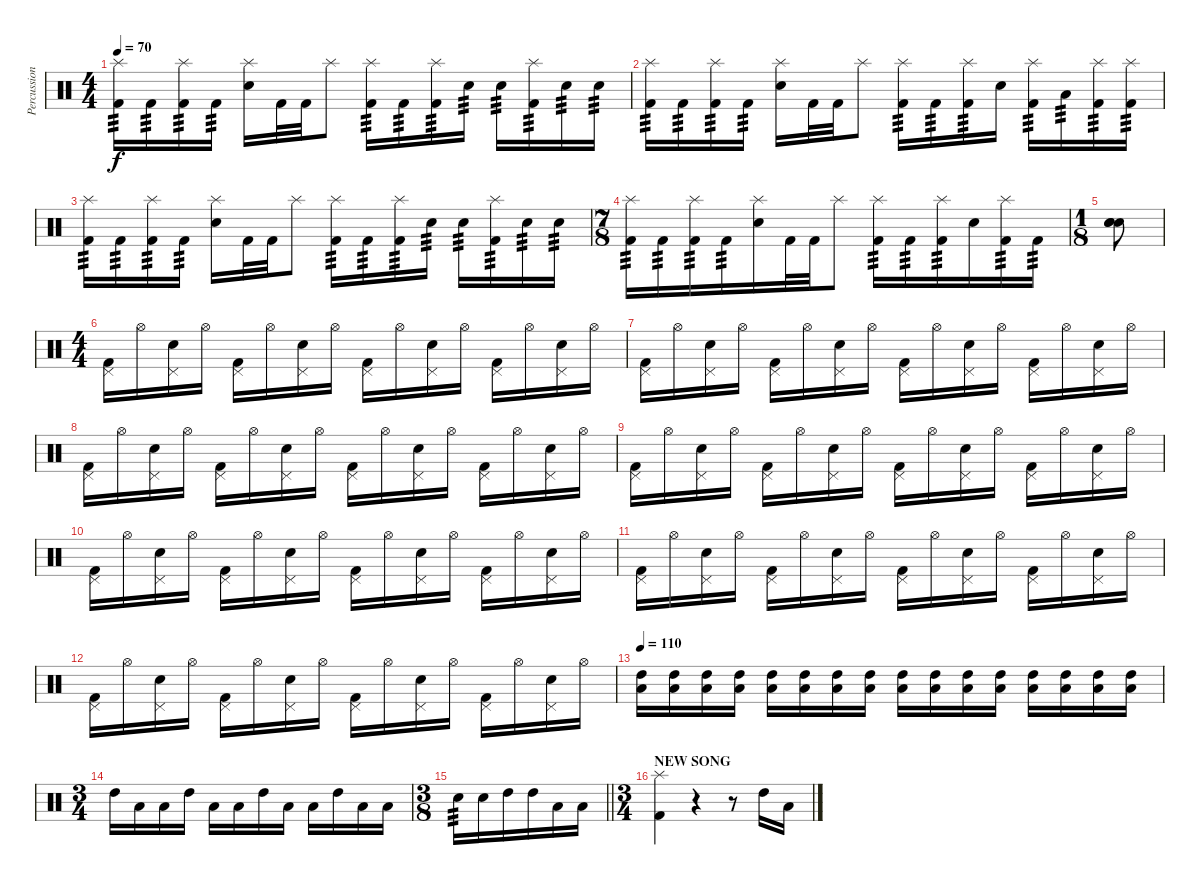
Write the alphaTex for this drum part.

\track ("Percussion" "Percussion") {instrument percussion}
\staff {score}
\articulation defaults
\ts (4 4)
\tempo 70
\clef neutral
\ks c
("Splash (hit)" "Kick (hit) 2").16{tp 3 dy f} "Kick (hit) 2".16{tp 3} ("Splash (hit)" "Kick (hit) 2").16{tp 3} "Kick (hit) 2".16{tp 3} ("Splash (hit)" "Electric Snare (hit)").16 "Kick (hit) 2".32 "Kick (hit) 2".32 "Splash (hit)".8 ("Splash (hit)" "Kick (hit) 2").16{tp 3} "Kick (hit) 2".16{tp 3} ("Splash (hit)" "Kick (hit) 2").16{tp 3} "Electric Snare (hit)".16{tp 3} "Electric Snare (hit)".16{tp 3} ("Splash (hit)" "Kick (hit) 2").16{tp 3} "Electric Snare (hit)".16{tp 3} "Electric Snare (hit)".16{tp 3} |
("Splash (hit)" "Kick (hit) 2").16{tp 3} "Kick (hit) 2".16{tp 3} ("Splash (hit)" "Kick (hit) 2").16{tp 3} "Kick (hit) 2".16{tp 3} ("Splash (hit)" "Electric Snare (hit)").16 "Kick (hit) 2".32 "Kick (hit) 2".32 "Splash (hit)".8 ("Splash (hit)" "Kick (hit) 2").16{tp 3} "Kick (hit) 2".16{tp 3} ("Splash (hit)" "Kick (hit) 2").16{tp 3} "Electric Snare (hit)".16 ("Splash (hit)" "Kick (hit) 2").16{tp 3} "Low Floor Tom (hit)".16{tp 3} ("Splash (hit)" "Kick (hit) 2").16{tp 3} ("Splash (hit)" "Kick (hit) 2").16{tp 3} |
("Splash (hit)" "Kick (hit) 2").16{tp 3} "Kick (hit) 2".16{tp 3} ("Splash (hit)" "Kick (hit) 2").16{tp 3} "Kick (hit) 2".16{tp 3} ("Splash (hit)" "Electric Snare (hit)").16 "Kick (hit) 2".32 "Kick (hit) 2".32 "Splash (hit)".8 ("Splash (hit)" "Kick (hit) 2").16{tp 3} "Kick (hit) 2".16{tp 3} ("Splash (hit)" "Kick (hit) 2").16{tp 3} "Electric Snare (hit)".16{tp 3} "Electric Snare (hit)".16{tp 3} ("Splash (hit)" "Kick (hit) 2").16{tp 3} "Electric Snare (hit)".16{tp 3} "Electric Snare (hit)".16{tp 3} |
\ts (7 8)
("Splash (hit)" "Kick (hit) 2").16{tp 3} "Kick (hit) 2".16{tp 3} ("Splash (hit)" "Kick (hit) 2").16{tp 3} "Kick (hit) 2".16{tp 3} ("Splash (hit)" "Electric Snare (hit)").16 "Kick (hit) 2".32 "Kick (hit) 2".32 "Splash (hit)".8 ("Splash (hit)" "Kick (hit) 2").16{tp 3} "Kick (hit) 2".16{tp 3} ("Splash (hit)" "Kick (hit) 2").16{tp 3} "Electric Snare (hit)".16 ("Splash (hit)" "Kick (hit) 2").16{tp 3} "Kick (hit) 2".16{tp 3} |
\ts (1 8)
("Hand Clap (hit)" "Hand Clap (hit)" "Hand Clap (hit)").8 |
\ts (4 4)
("Pedal Hi-Hat (hit)" "Kick (hit) 2").16 "Hi-Hat (open)".16 ("Pedal Hi-Hat (hit)" "Electric Snare (hit)").16 "Hi-Hat (open)".16 ("Pedal Hi-Hat (hit)" "Kick (hit) 2").16 "Hi-Hat (open)".16 ("Pedal Hi-Hat (hit)" "Electric Snare (hit)").16 "Hi-Hat (open)".16 ("Pedal Hi-Hat (hit)" "Kick (hit) 2").16 "Hi-Hat (open)".16 ("Pedal Hi-Hat (hit)" "Electric Snare (hit)").16 "Hi-Hat (open)".16 ("Pedal Hi-Hat (hit)" "Kick (hit) 2").16 "Hi-Hat (open)".16 ("Pedal Hi-Hat (hit)" "Electric Snare (hit)").16 "Hi-Hat (open)".16 |
("Pedal Hi-Hat (hit)" "Kick (hit) 2").16 "Hi-Hat (open)".16 ("Pedal Hi-Hat (hit)" "Electric Snare (hit)").16 "Hi-Hat (open)".16 ("Pedal Hi-Hat (hit)" "Kick (hit) 2").16 "Hi-Hat (open)".16 ("Pedal Hi-Hat (hit)" "Electric Snare (hit)").16 "Hi-Hat (open)".16 ("Pedal Hi-Hat (hit)" "Kick (hit) 2").16 "Hi-Hat (open)".16 ("Pedal Hi-Hat (hit)" "Electric Snare (hit)").16 "Hi-Hat (open)".16 ("Pedal Hi-Hat (hit)" "Kick (hit) 2").16 "Hi-Hat (open)".16 ("Pedal Hi-Hat (hit)" "Electric Snare (hit)").16 "Hi-Hat (open)".16 |
("Pedal Hi-Hat (hit)" "Kick (hit) 2").16 "Hi-Hat (open)".16 ("Pedal Hi-Hat (hit)" "Electric Snare (hit)").16 "Hi-Hat (open)".16 ("Pedal Hi-Hat (hit)" "Kick (hit) 2").16 "Hi-Hat (open)".16 ("Pedal Hi-Hat (hit)" "Electric Snare (hit)").16 "Hi-Hat (open)".16 ("Pedal Hi-Hat (hit)" "Kick (hit) 2").16 "Hi-Hat (open)".16 ("Pedal Hi-Hat (hit)" "Electric Snare (hit)").16 "Hi-Hat (open)".16 ("Pedal Hi-Hat (hit)" "Kick (hit) 2").16 "Hi-Hat (open)".16 ("Pedal Hi-Hat (hit)" "Electric Snare (hit)").16 "Hi-Hat (open)".16 |
("Pedal Hi-Hat (hit)" "Kick (hit) 2").16 "Hi-Hat (open)".16 ("Pedal Hi-Hat (hit)" "Electric Snare (hit)").16 "Hi-Hat (open)".16 ("Pedal Hi-Hat (hit)" "Kick (hit) 2").16 "Hi-Hat (open)".16 ("Pedal Hi-Hat (hit)" "Electric Snare (hit)").16 "Hi-Hat (open)".16 ("Pedal Hi-Hat (hit)" "Kick (hit) 2").16 "Hi-Hat (open)".16 ("Pedal Hi-Hat (hit)" "Electric Snare (hit)").16 "Hi-Hat (open)".16 ("Pedal Hi-Hat (hit)" "Kick (hit) 2").16 "Hi-Hat (open)".16 ("Pedal Hi-Hat (hit)" "Electric Snare (hit)").16 "Hi-Hat (open)".16 |
("Pedal Hi-Hat (hit)" "Kick (hit) 2").16 "Hi-Hat (open)".16 ("Pedal Hi-Hat (hit)" "Electric Snare (hit)").16 "Hi-Hat (open)".16 ("Pedal Hi-Hat (hit)" "Kick (hit) 2").16 "Hi-Hat (open)".16 ("Pedal Hi-Hat (hit)" "Electric Snare (hit)").16 "Hi-Hat (open)".16 ("Pedal Hi-Hat (hit)" "Kick (hit) 2").16 "Hi-Hat (open)".16 ("Pedal Hi-Hat (hit)" "Electric Snare (hit)").16 "Hi-Hat (open)".16 ("Pedal Hi-Hat (hit)" "Kick (hit) 2").16 "Hi-Hat (open)".16 ("Pedal Hi-Hat (hit)" "Electric Snare (hit)").16 "Hi-Hat (open)".16 |
("Pedal Hi-Hat (hit)" "Kick (hit) 2").16 "Hi-Hat (open)".16 ("Pedal Hi-Hat (hit)" "Electric Snare (hit)").16 "Hi-Hat (open)".16 ("Pedal Hi-Hat (hit)" "Kick (hit) 2").16 "Hi-Hat (open)".16 ("Pedal Hi-Hat (hit)" "Electric Snare (hit)").16 "Hi-Hat (open)".16 ("Pedal Hi-Hat (hit)" "Kick (hit) 2").16 "Hi-Hat (open)".16 ("Pedal Hi-Hat (hit)" "Electric Snare (hit)").16 "Hi-Hat (open)".16 ("Pedal Hi-Hat (hit)" "Kick (hit) 2").16 "Hi-Hat (open)".16 ("Pedal Hi-Hat (hit)" "Electric Snare (hit)").16 "Hi-Hat (open)".16 |
("Pedal Hi-Hat (hit)" "Kick (hit) 2").16 "Hi-Hat (open)".16 ("Pedal Hi-Hat (hit)" "Electric Snare (hit)").16 "Hi-Hat (open)".16 ("Pedal Hi-Hat (hit)" "Kick (hit) 2").16 "Hi-Hat (open)".16 ("Pedal Hi-Hat (hit)" "Electric Snare (hit)").16 "Hi-Hat (open)".16 ("Pedal Hi-Hat (hit)" "Kick (hit) 2").16 "Hi-Hat (open)".16 ("Pedal Hi-Hat (hit)" "Electric Snare (hit)").16 "Hi-Hat (open)".16 ("Pedal Hi-Hat (hit)" "Kick (hit) 2").16 "Hi-Hat (open)".16 ("Pedal Hi-Hat (hit)" "Electric Snare (hit)").16 "Hi-Hat (open)".16 |
\tempo 110
("High Tom (hit)" "Low Floor Tom (hit)").16 ("High Tom (hit)" "Low Floor Tom (hit)").16 ("High Tom (hit)" "Low Floor Tom (hit)").16 ("High Tom (hit)" "Low Floor Tom (hit)").16 ("High Tom (hit)" "Low Floor Tom (hit)").16 ("High Tom (hit)" "Low Floor Tom (hit)").16 ("High Tom (hit)" "Low Floor Tom (hit)").16 ("High Tom (hit)" "Low Floor Tom (hit)").16 ("High Tom (hit)" "Low Floor Tom (hit)").16 ("High Tom (hit)" "Low Floor Tom (hit)").16 ("High Tom (hit)" "Low Floor Tom (hit)").16 ("High Tom (hit)" "Low Floor Tom (hit)").16 ("High Tom (hit)" "Low Floor Tom (hit)").16 ("High Tom (hit)" "Low Floor Tom (hit)").16 ("High Tom (hit)" "Low Floor Tom (hit)").16 ("High Tom (hit)" "Low Floor Tom (hit)").16 |
\ts (3 4)
"High Tom (hit)".16 "Low Tom (hit)".16 "Low Floor Tom (hit)".16 "High Tom (hit)".16 "Low Tom (hit)".16 "Low Floor Tom (hit)".16 "High Tom (hit)".16 "Low Tom (hit)".16 "Low Floor Tom (hit)".16 "High Tom (hit)".16 "Low Tom (hit)".16 "Low Floor Tom (hit)".16 |
\ts (3 8)
\barLineRight lightlight "Electric Snare (hit)".16{tp 3} "Electric Snare (hit)".16 "High Tom (hit)".16 "High Tom (hit)".16 "Low Tom (hit)".16 "Low Floor Tom (hit)".16
|
\ts (3 4)
\section ("" "NEW SONG")
("Splash (hit)" "Kick (hit) 2").4 r.4 r.8 "High Tom (hit)".16 "Low Tom (hit)".16
